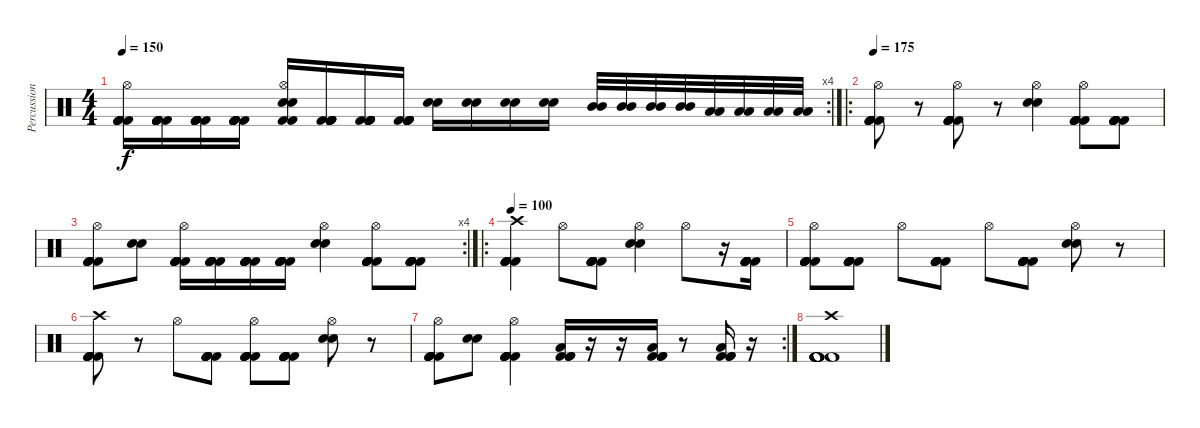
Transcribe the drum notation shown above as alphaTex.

\track ("Percussions" "Percussion") {instrument percussion}
\staff {score}
\articulation defaults
\rc 4
\ts (4 4)
\tempo 150
\clef neutral
\ks c
("Kick (hit) 2" "Kick (hit) 2" "Kick (hit) 2" "Kick (hit) 2" "Kick (hit) 2" "Hi-Hat (open)").16{dy f} ("Kick (hit) 2" "Kick (hit) 2" "Kick (hit) 2" "Kick (hit) 2" "Kick (hit) 2" "Kick (hit) 2").16 ("Kick (hit) 2" "Kick (hit) 2" "Kick (hit) 2" "Kick (hit) 2" "Kick (hit) 2" "Kick (hit) 2").16 ("Kick (hit) 2" "Kick (hit) 2" "Kick (hit) 2" "Kick (hit) 2" "Kick (hit) 2" "Kick (hit) 2").16 ("Kick (hit) 2" "Kick (hit) 2" "Electric Snare (hit)" "Electric Snare (hit)" "Hi-Hat (open)").16 ("Kick (hit) 2" "Kick (hit) 2" "Kick (hit) 2" "Kick (hit) 2" "Kick (hit) 2" "Kick (hit) 2").16 ("Kick (hit) 2" "Kick (hit) 2" "Kick (hit) 2" "Kick (hit) 2" "Kick (hit) 2" "Kick (hit) 2").16 ("Kick (hit) 2" "Kick (hit) 2" "Kick (hit) 2" "Kick (hit) 2" "Kick (hit) 2" "Kick (hit) 2").16 ("Electric Snare (hit)" "Electric Snare (hit)").16 ("Electric Snare (hit)" "Electric Snare (hit)").16 ("Electric Snare (hit)" "Electric Snare (hit)").16 ("Electric Snare (hit)" "Electric Snare (hit)").16 ("Mid Tom (hit)" "Mid Tom (hit)").32 ("Mid Tom (hit)" "Mid Tom (hit)").32 ("Mid Tom (hit)" "Mid Tom (hit)").32 ("Mid Tom (hit)" "Mid Tom (hit)").32 ("Low Tom (hit)" "Low Tom (hit)").32 ("Low Tom (hit)" "Low Tom (hit)").32 ("Low Tom (hit)" "Low Tom (hit)").32 ("Low Tom (hit)" "Low Tom (hit)").32 |
\ro
\tempo 175
("Kick (hit) 2" "Kick (hit) 2" "Kick (hit) 2" "Kick (hit) 2" "Kick (hit) 2" "Hi-Hat (open)").8 r.8 ("Kick (hit) 2" "Kick (hit) 2" "Kick (hit) 2" "Kick (hit) 2" "Kick (hit) 2" "Hi-Hat (open)").8 r.8 ("Electric Snare (hit)" "Electric Snare (hit)" "Hi-Hat (open)").4 ("Kick (hit) 2" "Kick (hit) 2" "Kick (hit) 2" "Kick (hit) 2" "Kick (hit) 2" "Hi-Hat (open)").8 ("Kick (hit) 2" "Kick (hit) 2" "Kick (hit) 2" "Kick (hit) 2" "Kick (hit) 2" "Kick (hit) 2").8 |
\rc 4
("Kick (hit) 2" "Kick (hit) 2" "Kick (hit) 2" "Kick (hit) 2" "Kick (hit) 2" "Hi-Hat (open)").8 ("Electric Snare (hit)" "Electric Snare (hit)").8 ("Kick (hit) 2" "Kick (hit) 2" "Kick (hit) 2" "Kick (hit) 2" "Kick (hit) 2" "Hi-Hat (open)").16 ("Kick (hit) 2" "Kick (hit) 2" "Kick (hit) 2" "Kick (hit) 2" "Kick (hit) 2" "Kick (hit) 2").16 ("Kick (hit) 2" "Kick (hit) 2" "Kick (hit) 2" "Kick (hit) 2" "Kick (hit) 2" "Kick (hit) 2").16 ("Kick (hit) 2" "Kick (hit) 2" "Kick (hit) 2" "Kick (hit) 2" "Kick (hit) 2" "Kick (hit) 2").16 ("Electric Snare (hit)" "Electric Snare (hit)" "Hi-Hat (open)").4 ("Kick (hit) 2" "Kick (hit) 2" "Kick (hit) 2" "Kick (hit) 2" "Kick (hit) 2" "Hi-Hat (open)").8 ("Kick (hit) 2" "Kick (hit) 2" "Kick (hit) 2" "Kick (hit) 2" "Kick (hit) 2" "Kick (hit) 2").8 |
\ro
\tempo 100
("Kick (hit) 2" "Kick (hit) 2" "Kick (hit) 2" "Kick (hit) 2" "Kick (hit) 2" "Crash high (hit)").4 "Hi-Hat (open)".8 ("Kick (hit) 2" "Kick (hit) 2" "Kick (hit) 2" "Kick (hit) 2" "Kick (hit) 2" "Kick (hit) 2").8 ("Electric Snare (hit)" "Electric Snare (hit)" "Hi-Hat (open)").4 "Hi-Hat (open)".8 r.16 ("Kick (hit) 2" "Kick (hit) 2" "Kick (hit) 2" "Kick (hit) 2" "Kick (hit) 2" "Kick (hit) 2").16 |
("Kick (hit) 2" "Kick (hit) 2" "Kick (hit) 2" "Kick (hit) 2" "Kick (hit) 2" "Hi-Hat (open)").8 ("Kick (hit) 2" "Kick (hit) 2" "Kick (hit) 2" "Kick (hit) 2" "Kick (hit) 2" "Kick (hit) 2").8 "Hi-Hat (open)".8 ("Kick (hit) 2" "Kick (hit) 2" "Kick (hit) 2" "Kick (hit) 2" "Kick (hit) 2" "Kick (hit) 2").8 "Hi-Hat (open)".8 ("Kick (hit) 2" "Kick (hit) 2" "Kick (hit) 2" "Kick (hit) 2" "Kick (hit) 2" "Kick (hit) 2").8 ("Electric Snare (hit)" "Electric Snare (hit)" "Hi-Hat (open)").8 r.8 |
("Kick (hit) 2" "Kick (hit) 2" "Kick (hit) 2" "Kick (hit) 2" "Kick (hit) 2" "Crash high (hit)").8 r.8 "Hi-Hat (open)".8 ("Kick (hit) 2" "Kick (hit) 2" "Kick (hit) 2" "Kick (hit) 2" "Kick (hit) 2" "Kick (hit) 2").8 ("Kick (hit) 2" "Kick (hit) 2" "Kick (hit) 2" "Kick (hit) 2" "Kick (hit) 2" "Hi-Hat (open)").8 ("Kick (hit) 2" "Kick (hit) 2" "Kick (hit) 2" "Kick (hit) 2" "Kick (hit) 2" "Kick (hit) 2").8 ("Electric Snare (hit)" "Electric Snare (hit)" "Hi-Hat (open)").8 r.8 |
\rc 2
("Kick (hit) 2" "Kick (hit) 2" "Kick (hit) 2" "Kick (hit) 2" "Kick (hit) 2" "Hi-Hat (open)").8 ("Electric Snare (hit)" "Electric Snare (hit)").8 ("Kick (hit) 2" "Kick (hit) 2" "Kick (hit) 2" "Kick (hit) 2" "Kick (hit) 2" "Hi-Hat (open)").4 ("Low Tom (hit)" "Kick (hit) 2" "Kick (hit) 2" "Kick (hit) 2").16 r.16 r.16 ("Low Tom (hit)" "Kick (hit) 2" "Kick (hit) 2" "Kick (hit) 2").16 r.8 ("Low Tom (hit)" "Kick (hit) 2" "Kick (hit) 2" "Kick (hit) 2").16 r.16 |
("Kick (hit) 2" "Kick (hit) 2" "Kick (hit) 2" "Kick (hit) 2" "Kick (hit) 2" "Crash high (hit)").1
